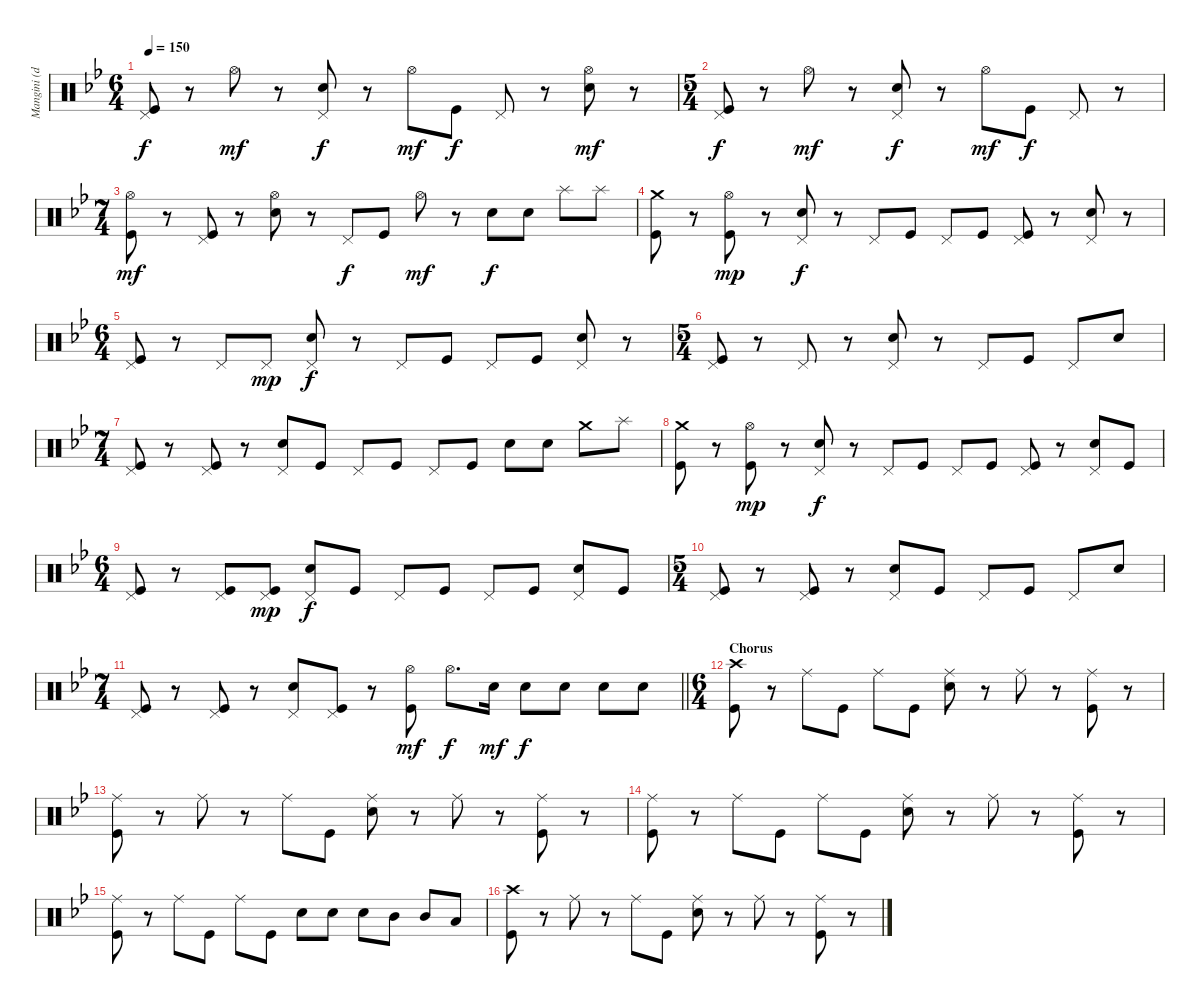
\track ("Mangini (drums)" "Mangini (d") {instrument percussion}
\staff {score}
\articulation defaults
\ts (6 4)
\tempo 150
\clef neutral
\ks gminor
("Pedal Hi-Hat (hit)" "Kick (hit)").8{dy f} r.8 "Hi-Hat (open)".8{dy mf} r.8 ("Pedal Hi-Hat (hit)" "Snare (hit) 2").8{dy f} r.8 "Hi-Hat (open)".8{dy mf} "Kick (hit)".8{dy f} "Pedal Hi-Hat (hit)".8 r.8 ("Hi-Hat (open)" "Snare (hit) 2").8{dy mf} r.8 |
\ts (5 4)
("Pedal Hi-Hat (hit)" "Kick (hit)").8{dy f} r.8 "Hi-Hat (open)".8{dy mf} r.8 ("Pedal Hi-Hat (hit)" "Snare (hit) 2").8{dy f} r.8 "Hi-Hat (open)".8{dy mf} "Kick (hit)".8{dy f} "Pedal Hi-Hat (hit)".8 r.8 |
\ts (7 4)
("Hi-Hat (open)" "Kick (hit)").8{dy mf} r.8 ("Pedal Hi-Hat (hit)" "Kick (hit)").8 r.8 ("Hi-Hat (open)" "Snare (hit) 2").8 r.8 "Pedal Hi-Hat (hit)".8{dy f} "Kick (hit)".8 "Hi-Hat (open)".8{dy mf} r.8 "Snare (hit) 2".8{dy f} "Snare (hit) 2".8 "Splash (hit)".8 "Splash (hit)".8 |
("Crash medium (hit)" "Kick (hit)").8 r.8 ("Hi-Hat (open)" "Kick (hit)").8{dy mp} r.8 ("Pedal Hi-Hat (hit)" "Snare (hit) 2").8{dy f} r.8 "Pedal Hi-Hat (hit)".8 "Kick (hit)".8 "Pedal Hi-Hat (hit)".8 "Kick (hit)".8 ("Pedal Hi-Hat (hit)" "Kick (hit)").8 r.8 ("Pedal Hi-Hat (hit)" "Snare (hit) 2").8 r.8 |
\ts (6 4)
("Pedal Hi-Hat (hit)" "Kick (hit)").8 r.8 "Pedal Hi-Hat (hit)".8 "Pedal Hi-Hat (hit)".8{dy mp} ("Pedal Hi-Hat (hit)" "Snare (hit) 2").8{dy f} r.8 "Pedal Hi-Hat (hit)".8 "Kick (hit)".8 "Pedal Hi-Hat (hit)".8 "Kick (hit)".8 ("Pedal Hi-Hat (hit)" "Snare (hit) 2").8 r.8 |
\ts (5 4)
("Pedal Hi-Hat (hit)" "Kick (hit)").8 r.8 "Pedal Hi-Hat (hit)".8 r.8 ("Pedal Hi-Hat (hit)" "Snare (hit) 2").8 r.8 "Pedal Hi-Hat (hit)".8 "Kick (hit)".8 "Pedal Hi-Hat (hit)".8 "Snare (hit) 2".8 |
\ts (7 4)
("Pedal Hi-Hat (hit)" "Kick (hit)").8 r.8 ("Pedal Hi-Hat (hit)" "Kick (hit)").8 r.8 ("Pedal Hi-Hat (hit)" "Snare (hit) 2").8 "Kick (hit)".8 "Pedal Hi-Hat (hit)".8 "Kick (hit)".8 "Pedal Hi-Hat (hit)".8 "Kick (hit)".8 "Snare (hit) 2".8 "Snare (hit) 2".8 "Crash medium (hit)".8 "Splash (hit)".8 |
("Crash medium (hit)" "Kick (hit)").8 r.8 ("Hi-Hat (open)" "Kick (hit)").8{dy mp} r.8 ("Pedal Hi-Hat (hit)" "Snare (hit) 2").8{dy f} r.8 "Pedal Hi-Hat (hit)".8 "Kick (hit)".8 "Pedal Hi-Hat (hit)".8 "Kick (hit)".8 ("Pedal Hi-Hat (hit)" "Kick (hit)").8 r.8 ("Pedal Hi-Hat (hit)" "Snare (hit) 2").8 "Kick (hit)".8 |
\ts (6 4)
("Pedal Hi-Hat (hit)" "Kick (hit)").8 r.8 ("Pedal Hi-Hat (hit)" "Kick (hit)").8 ("Pedal Hi-Hat (hit)" "Kick (hit)").8{dy mp} ("Pedal Hi-Hat (hit)" "Snare (hit) 2").8{dy f} "Kick (hit)".8 "Pedal Hi-Hat (hit)".8 "Kick (hit)".8 "Pedal Hi-Hat (hit)".8 "Kick (hit)".8 ("Pedal Hi-Hat (hit)" "Snare (hit) 2").8 "Kick (hit)".8 |
\ts (5 4)
("Pedal Hi-Hat (hit)" "Kick (hit)").8 r.8 ("Pedal Hi-Hat (hit)" "Kick (hit)").8 r.8 ("Pedal Hi-Hat (hit)" "Snare (hit) 2").8 "Kick (hit)".8 "Pedal Hi-Hat (hit)".8 "Kick (hit)".8 "Pedal Hi-Hat (hit)".8 "Snare (hit) 2".8 |
\ts (7 4)
\barLineRight lightlight
("Pedal Hi-Hat (hit)" "Kick (hit)").8 r.8 ("Pedal Hi-Hat (hit)" "Kick (hit)").8 r.8 ("Pedal Hi-Hat (hit)" "Snare (hit) 2").8 ("Pedal Hi-Hat (hit)" "Kick (hit)").8 r.8 ("Hi-Hat (open)" "Kick (hit)").8{dy mf} "Hi-Hat (open)".8{d dy f} "Snare (hit) 2".16{dy mf} "Snare (hit) 2".8{dy f} "Snare (hit) 2".8 "Snare (hit) 2".8 "Snare (hit) 2".8 |
\ts (6 4)
\section ("" "Chorus")
("Crash high (hit)" "Kick (hit)").8 r.8 "Ride (middle)".8 "Kick (hit)".8 "Ride (middle)".8 "Kick (hit)".8 ("Ride (middle)" "Snare (hit) 2").8 r.8 "Ride (middle)".8 r.8 ("Ride (middle)" "Kick (hit)").8 r.8 |
("Ride (middle)" "Kick (hit)").8 r.8 "Ride (middle)".8 r.8 "Ride (middle)".8 "Kick (hit)".8 ("Ride (middle)" "Snare (hit) 2").8 r.8 "Ride (middle)".8 r.8 ("Ride (middle)" "Kick (hit)").8 r.8 |
("Ride (middle)" "Kick (hit)").8 r.8 "Ride (middle)".8 "Kick (hit)".8 "Ride (middle)".8 "Kick (hit)".8 ("Ride (middle)" "Snare (hit) 2").8 r.8 "Ride (middle)".8 r.8 ("Ride (middle)" "Kick (hit)").8 r.8 |
("Ride (middle)" "Kick (hit)").8 r.8 "Ride (middle)".8 "Kick (hit)".8 "Ride (middle)".8 "Kick (hit)".8 "Snare (hit) 2".8 "Snare (hit) 2".8 "Snare (hit) 2".8 "Mid Tom (hit)".8 "Mid Tom (hit)".8 "Low Tom (hit)".8 |
("Crash high (hit)" "Kick (hit)").8 r.8 "Ride (middle)".8 r.8 "Ride (middle)".8 "Kick (hit)".8 ("Ride (middle)" "Snare (hit) 2").8 r.8 "Ride (middle)".8 r.8 ("Ride (middle)" "Kick (hit)").8 r.8
